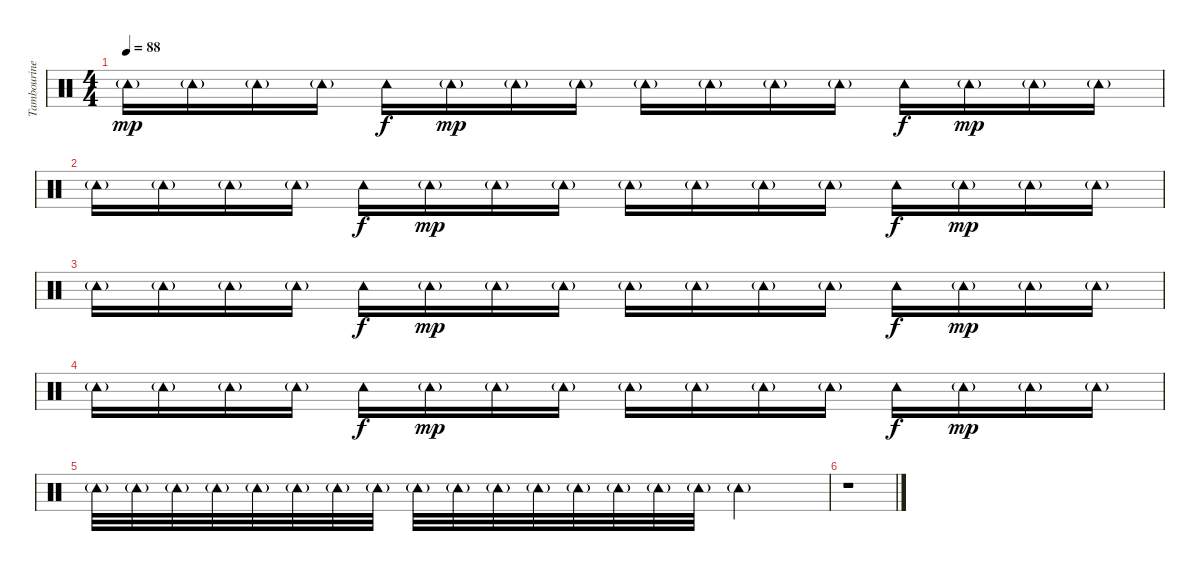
\track ("Tambourine" "Tambourine") {instrument percussion}
\staff {score}
\articulation defaults
\ts (4 4)
\tempo 88
\clef neutral
\ks c "Tambourine (hit)"{g}.16{dy mp} "Tambourine (hit)"{g}.16 "Tambourine (hit)"{g}.16 "Tambourine (hit)"{g}.16 "Tambourine (hit)".16{dy f} "Tambourine (hit)"{g}.16{dy mp} "Tambourine (hit)"{g}.16 "Tambourine (hit)"{g}.16 "Tambourine (hit)"{g}.16 "Tambourine (hit)"{g}.16 "Tambourine (hit)"{g}.16 "Tambourine (hit)"{g}.16 "Tambourine (hit)".16{dy f} "Tambourine (hit)"{g}.16{dy mp} "Tambourine (hit)"{g}.16 "Tambourine (hit)"{g}.16
|
"Tambourine (hit)"{g}.16 "Tambourine (hit)"{g}.16 "Tambourine (hit)"{g}.16 "Tambourine (hit)"{g}.16 "Tambourine (hit)".16{dy f} "Tambourine (hit)"{g}.16{dy mp} "Tambourine (hit)"{g}.16 "Tambourine (hit)"{g}.16 "Tambourine (hit)"{g}.16 "Tambourine (hit)"{g}.16 "Tambourine (hit)"{g}.16 "Tambourine (hit)"{g}.16 "Tambourine (hit)".16{dy f} "Tambourine (hit)"{g}.16{dy mp} "Tambourine (hit)"{g}.16 "Tambourine (hit)"{g}.16 |
"Tambourine (hit)"{g}.16 "Tambourine (hit)"{g}.16 "Tambourine (hit)"{g}.16 "Tambourine (hit)"{g}.16 "Tambourine (hit)".16{dy f} "Tambourine (hit)"{g}.16{dy mp} "Tambourine (hit)"{g}.16 "Tambourine (hit)"{g}.16 "Tambourine (hit)"{g}.16 "Tambourine (hit)"{g}.16 "Tambourine (hit)"{g}.16 "Tambourine (hit)"{g}.16 "Tambourine (hit)".16{dy f} "Tambourine (hit)"{g}.16{dy mp} "Tambourine (hit)"{g}.16 "Tambourine (hit)"{g}.16 |
"Tambourine (hit)"{g}.16 "Tambourine (hit)"{g}.16 "Tambourine (hit)"{g}.16 "Tambourine (hit)"{g}.16 "Tambourine (hit)".16{dy f} "Tambourine (hit)"{g}.16{dy mp} "Tambourine (hit)"{g}.16 "Tambourine (hit)"{g}.16 "Tambourine (hit)"{g}.16 "Tambourine (hit)"{g}.16 "Tambourine (hit)"{g}.16 "Tambourine (hit)"{g}.16 "Tambourine (hit)".16{dy f} "Tambourine (hit)"{g}.16{dy mp} "Tambourine (hit)"{g}.16 "Tambourine (hit)"{g}.16 |
"Tambourine (hit)"{g}.32 "Tambourine (hit)"{g}.32 "Tambourine (hit)"{g}.32 "Tambourine (hit)"{g}.32 "Tambourine (hit)"{g}.32 "Tambourine (hit)"{g}.32 "Tambourine (hit)"{g}.32 "Tambourine (hit)"{g}.32 "Tambourine (hit)"{g}.32 "Tambourine (hit)"{g}.32 "Tambourine (hit)"{g}.32 "Tambourine (hit)"{g}.32 "Tambourine (hit)"{g}.32 "Tambourine (hit)"{g}.32 "Tambourine (hit)"{g}.32 "Tambourine (hit)"{g}.32 "Tambourine (hit)"{g}.2 |
r.1
